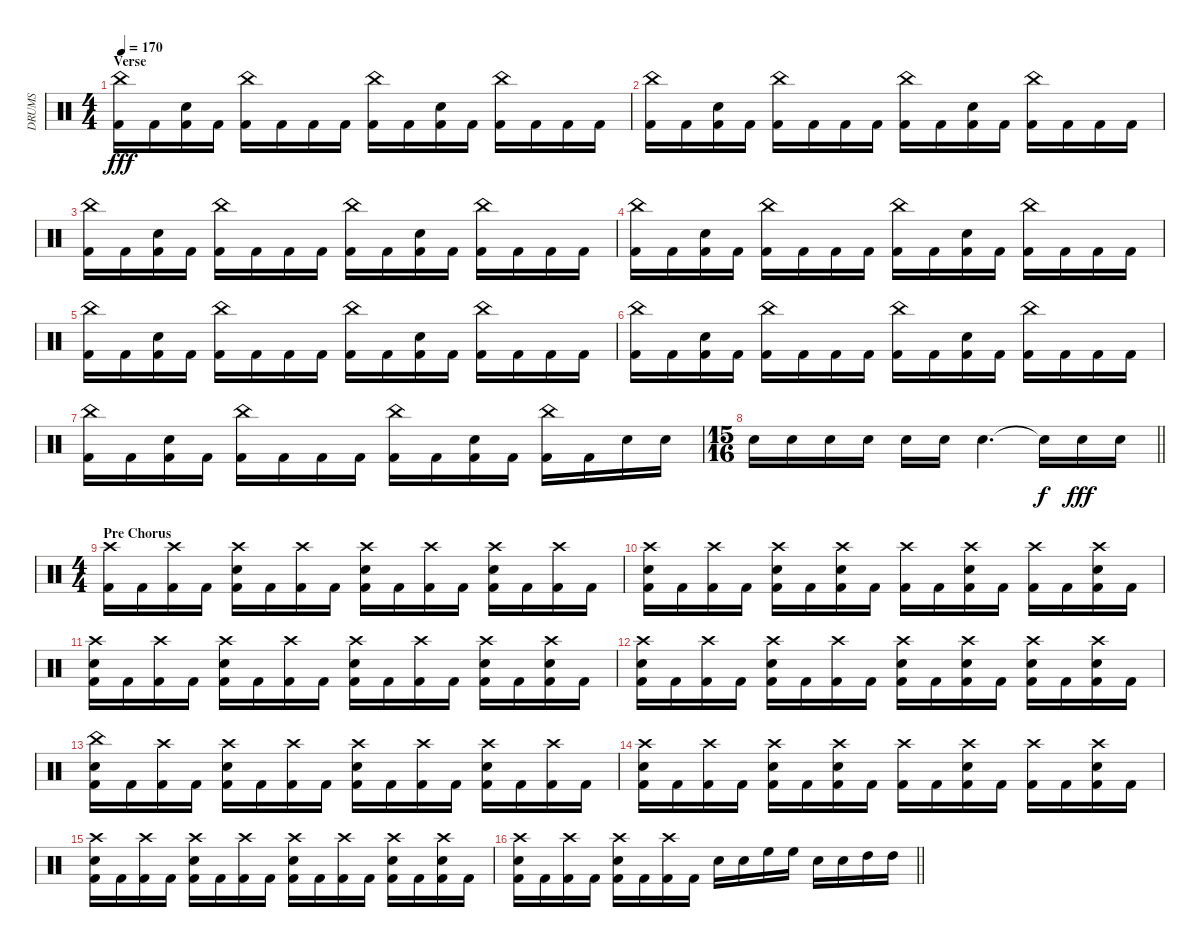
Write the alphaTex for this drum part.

\track ("DRUMS" "DRUMS") {instrument percussion}
\staff {score}
\articulation defaults
\ts (4 4)
\section ("" "Verse")
\tempo 170
\clef neutral
\ks c
("China (hit)" "Kick (hit) 2").16{dy fff} "Kick (hit) 2".16 ("Snare (hit) 2" "Kick (hit) 2").16 "Kick (hit) 2".16 ("China (hit)" "Kick (hit) 2").16 "Kick (hit) 2".16 "Kick (hit) 2".16 "Kick (hit) 2".16 ("Kick (hit) 2" "China (hit)").16 "Kick (hit) 2".16 ("Kick (hit) 2" "Snare (hit) 2").16 "Kick (hit) 2".16 ("China (hit)" "Kick (hit) 2").16 "Kick (hit) 2".16 "Kick (hit) 2".16 "Kick (hit) 2".16 |
("Kick (hit) 2" "China (hit)").16 "Kick (hit) 2".16 ("Snare (hit) 2" "Kick (hit) 2").16 "Kick (hit) 2".16 ("China (hit)" "Kick (hit) 2").16 "Kick (hit) 2".16 "Kick (hit) 2".16 "Kick (hit) 2".16 ("Kick (hit) 2" "China (hit)").16 "Kick (hit) 2".16 ("Kick (hit) 2" "Snare (hit) 2").16 "Kick (hit) 2".16 ("China (hit)" "Kick (hit) 2").16 "Kick (hit) 2".16 "Kick (hit) 2".16 "Kick (hit) 2".16 |
("Kick (hit) 2" "China (hit)").16 "Kick (hit) 2".16 ("Snare (hit) 2" "Kick (hit) 2").16 "Kick (hit) 2".16 ("China (hit)" "Kick (hit) 2").16 "Kick (hit) 2".16 "Kick (hit) 2".16 "Kick (hit) 2".16 ("Kick (hit) 2" "China (hit)").16 "Kick (hit) 2".16 ("Kick (hit) 2" "Snare (hit) 2").16 "Kick (hit) 2".16 ("China (hit)" "Kick (hit) 2").16 "Kick (hit) 2".16 "Kick (hit) 2".16 "Kick (hit) 2".16 |
("Kick (hit) 2" "China (hit)").16 "Kick (hit) 2".16 ("Snare (hit) 2" "Kick (hit) 2").16 "Kick (hit) 2".16 ("Kick (hit) 2" "China (hit)").16 "Kick (hit) 2".16 "Kick (hit) 2".16 "Kick (hit) 2".16 ("Kick (hit) 2" "China (hit)").16 "Kick (hit) 2".16 ("Kick (hit) 2" "Snare (hit) 2").16 "Kick (hit) 2".16 ("Kick (hit) 2" "China (hit)").16 "Kick (hit) 2".16 "Kick (hit) 2".16 "Kick (hit) 2".16 |
("Kick (hit) 2" "China (hit)").16 "Kick (hit) 2".16 ("Snare (hit) 2" "Kick (hit) 2").16 "Kick (hit) 2".16 ("Kick (hit) 2" "China (hit)").16 "Kick (hit) 2".16 "Kick (hit) 2".16 "Kick (hit) 2".16 ("Kick (hit) 2" "China (hit)").16 "Kick (hit) 2".16 ("Kick (hit) 2" "Snare (hit) 2").16 "Kick (hit) 2".16 ("Kick (hit) 2" "China (hit)").16 "Kick (hit) 2".16 "Kick (hit) 2".16 "Kick (hit) 2".16 |
("Kick (hit) 2" "China (hit)").16 "Kick (hit) 2".16 ("Snare (hit) 2" "Kick (hit) 2").16 "Kick (hit) 2".16 ("Kick (hit) 2" "China (hit)").16 "Kick (hit) 2".16 "Kick (hit) 2".16 "Kick (hit) 2".16 ("Kick (hit) 2" "China (hit)").16 "Kick (hit) 2".16 ("Kick (hit) 2" "Snare (hit) 2").16 "Kick (hit) 2".16 ("Kick (hit) 2" "China (hit)").16 "Kick (hit) 2".16 "Kick (hit) 2".16 "Kick (hit) 2".16 |
("Kick (hit) 2" "China (hit)").16 "Kick (hit) 2".16 ("Kick (hit) 2" "Snare (hit) 2").16 "Kick (hit) 2".16 ("China (hit)" "Kick (hit) 2").16 "Kick (hit) 2".16 "Kick (hit) 2".16 "Kick (hit) 2".16 ("Kick (hit) 2" "China (hit)").16 "Kick (hit) 2".16 ("Snare (hit) 2" "Kick (hit) 2").16 "Kick (hit) 2".16 ("China (hit)" "Kick (hit) 2").16 "Kick (hit) 2".16 "Snare (hit) 2".16 "Snare (hit) 2".16 |
\ts (15 16)
\barLineRight lightlight "Snare (hit) 2".16 "Snare (hit) 2".16 "Snare (hit) 2".16 "Snare (hit) 2".16 "Snare (hit) 2".16 "Snare (hit) 2".16 "Snare (hit) 2".4{d} "Snare (hit)"{t}.16{dy f} "Snare (hit) 2".16{dy fff} "Snare (hit) 2".16
|
\ts (4 4)
\section ("" "Pre Chorus")
("Crash high (hit)" "Kick (hit) 2").16 "Kick (hit) 2".16 ("Crash high (hit)" "Kick (hit) 2").16 "Kick (hit) 2".16 ("Crash high (hit)" "Kick (hit) 2" "Snare (hit) 2").16 "Kick (hit) 2".16 ("Crash high (hit)" "Kick (hit) 2").16 "Kick (hit) 2".16 ("Crash high (hit)" "Kick (hit) 2" "Snare (hit) 2").16 "Kick (hit) 2".16 ("Crash high (hit)" "Kick (hit) 2").16 "Kick (hit) 2".16 ("Crash high (hit)" "Kick (hit) 2" "Snare (hit) 2").16 "Kick (hit) 2".16 ("Crash high (hit)" "Kick (hit) 2").16 "Kick (hit) 2".16 |
("Kick (hit) 2" "Crash high (hit)" "Snare (hit) 2").16 "Kick (hit) 2".16 ("Crash high (hit)" "Kick (hit) 2").16 "Kick (hit) 2".16 ("Snare (hit) 2" "Kick (hit) 2" "Crash high (hit)").16 "Kick (hit) 2".16 ("Kick (hit) 2" "Crash high (hit)" "Snare (hit) 2").16 "Kick (hit) 2".16 ("Crash high (hit)" "Kick (hit) 2").16 "Kick (hit) 2".16 ("Crash high (hit)" "Kick (hit) 2" "Snare (hit) 2").16 "Kick (hit) 2".16 ("Kick (hit) 2" "Crash high (hit)").16 "Kick (hit) 2".16 ("Crash high (hit)" "Snare (hit) 2" "Kick (hit) 2").16 "Kick (hit) 2".16 |
("Crash high (hit)" "Snare (hit) 2" "Kick (hit) 2").16 "Kick (hit) 2".16 ("Crash high (hit)" "Kick (hit) 2").16 "Kick (hit) 2".16 ("Snare (hit) 2" "Crash high (hit)" "Kick (hit) 2").16 "Kick (hit) 2".16 ("Crash high (hit)" "Kick (hit) 2").16 "Kick (hit) 2".16 ("Crash high (hit)" "Kick (hit) 2" "Snare (hit) 2").16 "Kick (hit) 2".16 ("Crash high (hit)" "Kick (hit) 2").16 "Kick (hit) 2".16 ("Snare (hit) 2" "Crash high (hit)" "Kick (hit) 2").16 "Kick (hit) 2".16 ("Snare (hit) 2" "Crash high (hit)" "Kick (hit) 2").16 "Kick (hit) 2".16 |
("Kick (hit) 2" "Snare (hit) 2" "Crash high (hit)").16 "Kick (hit) 2".16 ("Kick (hit) 2" "Crash high (hit)").16 "Kick (hit) 2".16 ("Kick (hit) 2" "Snare (hit) 2" "Crash high (hit)").16 "Kick (hit) 2".16 ("Kick (hit) 2" "Crash high (hit)").16 "Kick (hit) 2".16 ("Kick (hit) 2" "Snare (hit) 2" "Crash high (hit)").16 "Kick (hit) 2".16 ("Kick (hit) 2" "Snare (hit) 2" "Crash high (hit)").16 "Kick (hit) 2".16 ("Kick (hit) 2" "Snare (hit) 2" "Crash high (hit)").16 "Kick (hit) 2".16 ("Kick (hit) 2" "Snare (hit) 2" "Crash high (hit)").16 "Kick (hit) 2".16 |
("Kick (hit) 2" "Snare (hit) 2" "China (hit)").16 "Kick (hit) 2".16 ("Kick (hit) 2" "Crash high (hit)").16 "Kick (hit) 2".16 ("Kick (hit) 2" "Snare (hit) 2" "Crash high (hit)").16 "Kick (hit) 2".16 ("Kick (hit) 2" "Crash high (hit)").16 "Kick (hit) 2".16 ("Kick (hit) 2" "Snare (hit) 2" "Crash high (hit)").16 "Kick (hit) 2".16 ("Kick (hit) 2" "Crash high (hit)").16 "Kick (hit) 2".16 ("Kick (hit) 2" "Snare (hit) 2" "Crash high (hit)").16 "Kick (hit) 2".16 ("Kick (hit) 2" "Crash high (hit)").16 "Kick (hit) 2".16 |
("Kick (hit) 2" "Snare (hit) 2" "Crash high (hit)").16 "Kick (hit) 2".16 ("Kick (hit) 2" "Crash high (hit)").16 "Kick (hit) 2".16 ("Kick (hit) 2" "Snare (hit) 2" "Crash high (hit)").16 "Kick (hit) 2".16 ("Kick (hit) 2" "Snare (hit) 2" "Crash high (hit)").16 "Kick (hit) 2".16 ("Kick (hit) 2" "Crash high (hit)").16 "Kick (hit) 2".16 ("Kick (hit) 2" "Snare (hit) 2" "Crash high (hit)").16 "Kick (hit) 2".16 ("Kick (hit) 2" "Crash high (hit)").16 "Kick (hit) 2".16 ("Kick (hit) 2" "Snare (hit) 2" "Crash high (hit)").16 "Kick (hit) 2".16 |
("Kick (hit) 2" "Snare (hit) 2" "Crash high (hit)").16 "Kick (hit) 2".16 ("Kick (hit) 2" "Crash high (hit)").16 "Kick (hit) 2".16 ("Kick (hit) 2" "Snare (hit) 2" "Crash high (hit)").16 "Kick (hit) 2".16 ("Kick (hit) 2" "Crash high (hit)").16 "Kick (hit) 2".16 ("Kick (hit) 2" "Snare (hit) 2" "Crash high (hit)").16 "Kick (hit) 2".16 ("Kick (hit) 2" "Crash high (hit)").16 "Kick (hit) 2".16 ("Kick (hit) 2" "Snare (hit) 2" "Crash high (hit)").16 "Kick (hit) 2".16 ("Kick (hit) 2" "Snare (hit) 2" "Crash high (hit)").16 "Kick (hit) 2".16 |
\barLineRight lightlight
("Kick (hit) 2" "Crash high (hit)" "Snare (hit) 2").16 "Kick (hit) 2".16 ("Crash high (hit)" "Kick (hit) 2").16 "Kick (hit) 2".16 ("Kick (hit) 2" "Crash high (hit)" "Snare (hit) 2").16 "Kick (hit) 2".16 ("Crash high (hit)" "Kick (hit) 2").16 "Kick (hit) 2".16 "Snare (hit) 2".16 "Snare (hit) 2".16 "High Floor Tom (hit)".16 "High Floor Tom (hit)".16 "Snare (hit) 2".16 "Snare (hit) 2".16 "High Tom (hit)".16 "High Tom (hit)".16
